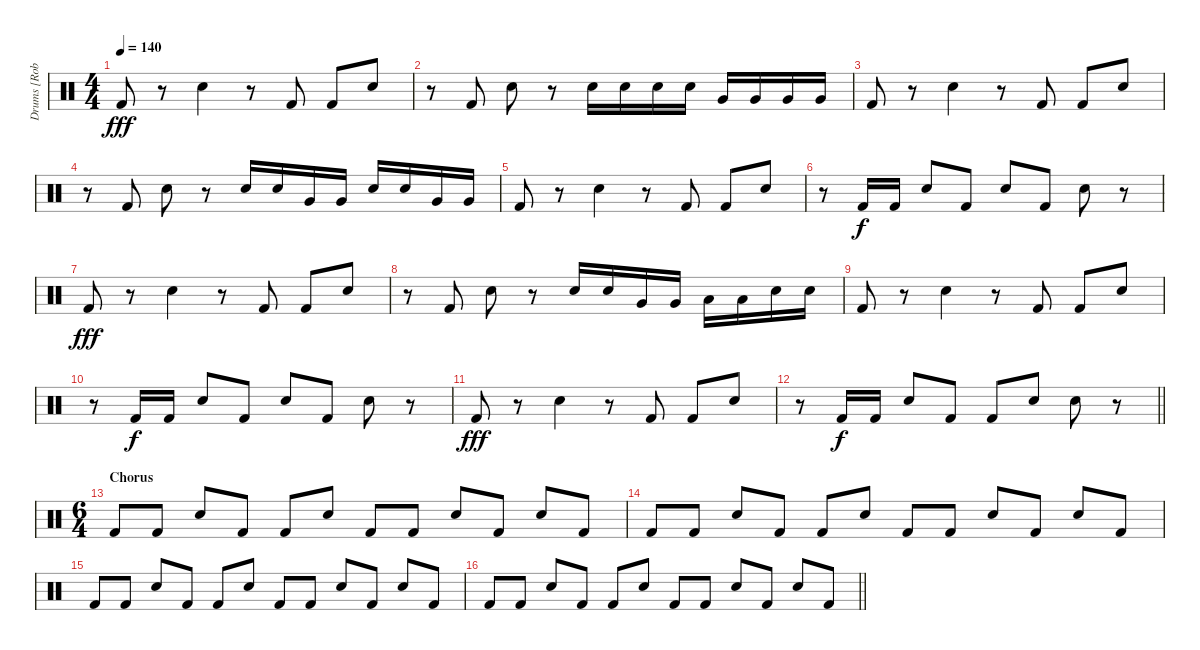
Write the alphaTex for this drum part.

\track ("Drums [Rob Bourdon]" "Drums [Rob") {instrument percussion}
\staff {score}
\articulation defaults
\ts (4 4)
\tempo 140
\clef neutral
\ks c "Kick (hit) 2".8{dy fff}
r.8 "Snare (hit) 2".4 r.8 "Kick (hit) 2".8 "Kick (hit) 2".8 "Snare (hit) 2".8 |
r.8 "Kick (hit) 2".8 "Snare (hit) 2".8 r.8 "Snare (hit) 2".16 "Snare (hit) 2".16 "Snare (hit) 2".16 "Snare (hit) 2".16 "Very Low Tom (hit)".16 "Very Low Tom (hit)".16 "Very Low Tom (hit)".16 "Very Low Tom (hit)".16 |
"Kick (hit) 2".8 r.8 "Snare (hit) 2".4 r.8 "Kick (hit) 2".8 "Kick (hit) 2".8 "Snare (hit) 2".8 |
r.8 "Kick (hit) 2".8 "Snare (hit) 2".8 r.8 "Snare (hit) 2".16 "Snare (hit) 2".16 "Very Low Tom (hit)".16 "Very Low Tom (hit)".16 "Snare (hit) 2".16 "Snare (hit) 2".16 "Very Low Tom (hit)".16 "Very Low Tom (hit)".16 |
"Kick (hit) 2".8 r.8 "Snare (hit) 2".4 r.8 "Kick (hit) 2".8 "Kick (hit) 2".8 "Snare (hit) 2".8 |
r.8 "Kick (hit) 2".16{dy f} "Kick (hit) 2".16 "Snare (hit) 2".8 "Kick (hit) 2".8 "Snare (hit) 2".8 "Kick (hit) 2".8 "Snare (hit) 2".8 r.8 |
"Kick (hit) 2".8{dy fff} r.8 "Snare (hit) 2".4 r.8 "Kick (hit) 2".8 "Kick (hit) 2".8 "Snare (hit) 2".8 |
r.8 "Kick (hit) 2".8 "Snare (hit) 2".8 r.8 "Snare (hit) 2".16 "Snare (hit) 2".16 "Very Low Tom (hit)".16 "Very Low Tom (hit)".16 "Low Floor Tom (hit)".16 "Low Floor Tom (hit)".16 "Snare (hit) 2".16 "Snare (hit) 2".16 |
"Kick (hit) 2".8 r.8 "Snare (hit) 2".4 r.8 "Kick (hit) 2".8 "Kick (hit) 2".8 "Snare (hit) 2".8 |
r.8 "Kick (hit) 2".16{dy f} "Kick (hit) 2".16 "Snare (hit) 2".8 "Kick (hit) 2".8 "Snare (hit) 2".8 "Kick (hit) 2".8 "Snare (hit) 2".8 r.8 |
"Kick (hit) 2".8{dy fff} r.8 "Snare (hit) 2".4 r.8 "Kick (hit) 2".8 "Kick (hit) 2".8 "Snare (hit) 2".8 |
\barLineRight lightlight
r.8 "Kick (hit) 2".16{dy f} "Kick (hit) 2".16 "Snare (hit) 2".8 "Kick (hit) 2".8 "Kick (hit) 2".8 "Snare (hit) 2".8 "Snare (hit) 2".8 r.8 |
\ts (6 4)
\section ("" "Chorus")
"Kick (hit) 2".8 "Kick (hit) 2".8 "Snare (hit) 2".8 "Kick (hit) 2".8 "Kick (hit) 2".8 "Snare (hit) 2".8 "Kick (hit) 2".8 "Kick (hit) 2".8 "Snare (hit) 2".8 "Kick (hit) 2".8 "Snare (hit) 2".8 "Kick (hit) 2".8 |
"Kick (hit) 2".8 "Kick (hit) 2".8 "Snare (hit) 2".8 "Kick (hit) 2".8 "Kick (hit) 2".8 "Snare (hit) 2".8 "Kick (hit) 2".8 "Kick (hit) 2".8 "Snare (hit) 2".8 "Kick (hit) 2".8 "Snare (hit) 2".8 "Kick (hit) 2".8 |
"Kick (hit) 2".8 "Kick (hit) 2".8 "Snare (hit) 2".8 "Kick (hit) 2".8 "Kick (hit) 2".8 "Snare (hit) 2".8 "Kick (hit) 2".8 "Kick (hit) 2".8 "Snare (hit) 2".8 "Kick (hit) 2".8 "Snare (hit) 2".8 "Kick (hit) 2".8 |
\barLineRight lightlight "Kick (hit) 2".8 "Kick (hit) 2".8 "Snare (hit) 2".8 "Kick (hit) 2".8 "Kick (hit) 2".8 "Snare (hit) 2".8 "Kick (hit) 2".8 "Kick (hit) 2".8 "Snare (hit) 2".8 "Kick (hit) 2".8 "Snare (hit) 2".8 "Kick (hit) 2".8
